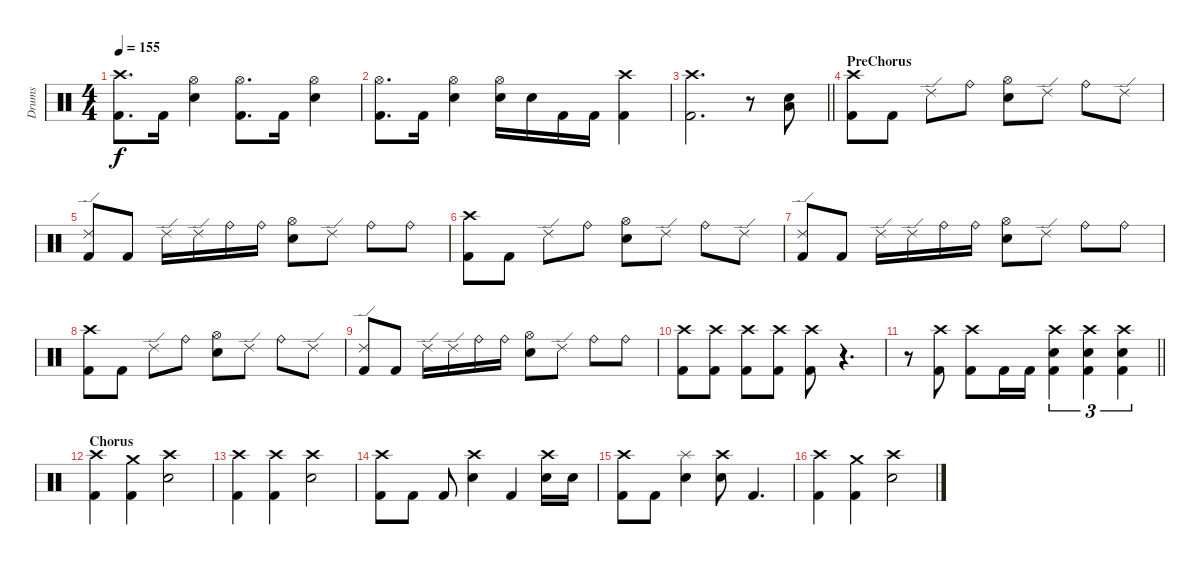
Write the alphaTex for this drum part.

\track ("Drums" "Drums") {instrument percussion}
\staff {score}
\articulation defaults
\ts (4 4)
\tempo 155
\clef neutral
\ks c
("Crash high (hit)" "Kick (hit) 2").8{d dy f} "Kick (hit) 2".16 ("Hi-Hat (open)" "Snare (hit) 2").4 ("Hi-Hat (open)" "Kick (hit) 2").8{d} "Kick (hit) 2".16 ("Hi-Hat (open)" "Snare (hit) 2").4 |
("Hi-Hat (open)" "Kick (hit) 2").8{d} "Kick (hit) 2".16 ("Hi-Hat (open)" "Snare (hit) 2").4 ("Hi-Hat (open)" "Snare (hit) 2").16 "Snare (hit) 2".16 "Kick (hit) 2".16 "Kick (hit) 2".16 ("Crash high (hit)" "Kick (hit) 2").4 |
\barLineRight lightlight
("Crash high (hit)" "Kick (hit) 2").2{d} r.8 ("Snare (hit) 2" "Low Floor Tom (hit)").8 |
\section ("" "PreChorus")
("Crash high (hit)" "Kick (hit) 2").8 "Kick (hit) 2".8 "Ride (edge) 2".8 "Ride (bell)".8 ("Hi-Hat (open)" "Snare (hit) 2").8 "Ride (edge) 2".8 "Ride (bell)".8 "Ride (edge) 2".8 |
("Ride (edge) 2" "Kick (hit) 2").8 "Kick (hit) 2".8 "Ride (edge) 2".16 "Ride (edge) 2".16 "Ride (bell)".16 "Ride (bell)".16 ("Hi-Hat (open)" "Snare (hit) 2").8 "Ride (edge) 2".8 "Ride (bell)".8 "Ride (bell)".8 |
("Crash high (hit)" "Kick (hit) 2").8 "Kick (hit) 2".8 "Ride (edge) 2".8 "Ride (bell)".8 ("Hi-Hat (open)" "Snare (hit) 2").8 "Ride (edge) 2".8 "Ride (bell)".8 "Ride (edge) 2".8 |
("Ride (edge) 2" "Kick (hit) 2").8 "Kick (hit) 2".8 "Ride (edge) 2".16 "Ride (edge) 2".16 "Ride (bell)".16 "Ride (bell)".16 ("Hi-Hat (open)" "Snare (hit) 2").8 "Ride (edge) 2".8 "Ride (bell)".8 "Ride (bell)".8 |
("Crash high (hit)" "Kick (hit) 2").8 "Kick (hit) 2".8 "Ride (edge) 2".8 "Ride (bell)".8 ("Hi-Hat (open)" "Snare (hit) 2").8 "Ride (edge) 2".8 "Ride (bell)".8 "Ride (edge) 2".8 |
("Ride (edge) 2" "Kick (hit) 2").8 "Kick (hit) 2".8 "Ride (edge) 2".16 "Ride (edge) 2".16 "Ride (bell)".16 "Ride (bell)".16 ("Hi-Hat (open)" "Snare (hit) 2").8 "Ride (edge) 2".8 "Ride (bell)".8 "Ride (bell)".8 |
("Crash high (hit)" "Kick (hit) 2").8 ("Crash high (hit)" "Kick (hit) 2").8 ("Crash high (hit)" "Kick (hit) 2").8 ("Crash high (hit)" "Kick (hit) 2").8 ("Crash high (hit)" "Kick (hit) 2").8 r.4{d} |
\barLineRight lightlight
r.8 ("Crash high (hit)" "Kick (hit) 2").8 ("Crash high (hit)" "Kick (hit) 2").8 "Kick (hit) 2".16 "Kick (hit) 2".16 ("Crash high (hit)" "Snare (hit) 2" "Kick (hit) 2").4{tu (3 2)} ("Crash high (hit)" "Snare (hit) 2" "Kick (hit) 2").4{tu (3 2)} ("Crash high (hit)" "Snare (hit) 2" "Kick (hit) 2").4{tu (3 2)} |
\section ("" "Chorus")
("Crash high (hit)" "Kick (hit) 2").4 ("Crash medium (hit)" "Kick (hit) 2").4 ("Crash high (hit)" "Snare (hit) 2").2 |
("Crash high (hit)" "Kick (hit) 2").4 ("Crash high (hit)" "Kick (hit) 2").4 ("Crash high (hit)" "Snare (hit) 2").2 |
("Crash high (hit)" "Kick (hit) 2").8 "Kick (hit) 2".8 "Kick (hit) 2".8 ("Crash high (hit)" "Snare (hit) 2").4 "Kick (hit) 2".4 ("Crash high (hit)" "Snare (hit) 2").16 "Snare (hit) 2".16 |
("Crash high (hit)" "Kick (hit) 2").8 "Kick (hit) 2".8 ("Splash (hit)" "Snare (hit) 2").4 ("Crash high (hit)" "Snare (hit) 2").8 "Kick (hit) 2".4{d} |
("Crash high (hit)" "Kick (hit) 2").4 ("Crash medium (hit)" "Kick (hit) 2").4 ("Crash high (hit)" "Snare (hit) 2").2
